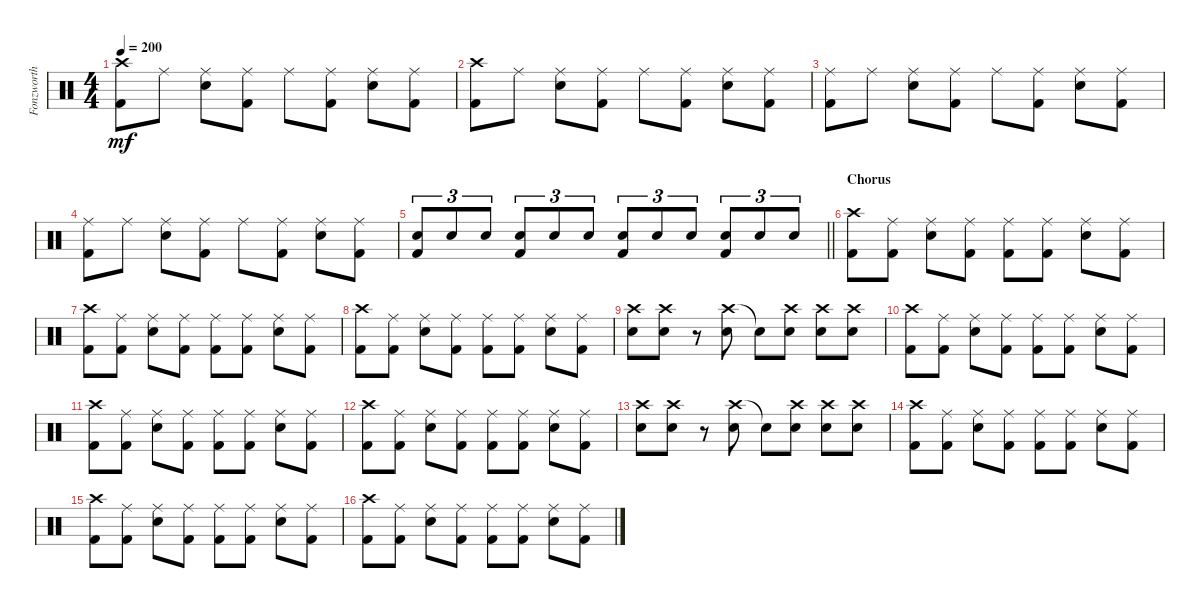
\track ("Fonzworth Fred" "Fonzworth ") {instrument percussion}
\staff {score}
\articulation defaults
\ts (4 4)
\tempo 200
\clef neutral
\ks c
("Crash high (hit)" "Kick (hit) 2").8{dy mf} "Ride (middle)".8 ("Ride (middle)" "Snare (hit) 2").8 ("Ride (middle)" "Kick (hit) 2").8 "Ride (middle)".8 ("Ride (middle)" "Kick (hit) 2").8 ("Ride (middle)" "Snare (hit) 2").8 ("Ride (middle)" "Kick (hit) 2").8 |
("Crash high (hit)" "Kick (hit) 2").8 "Ride (middle)".8 ("Ride (middle)" "Snare (hit) 2").8 ("Ride (middle)" "Kick (hit) 2").8 "Ride (middle)".8 ("Ride (middle)" "Kick (hit) 2").8 ("Ride (middle)" "Snare (hit) 2").8 ("Ride (middle)" "Kick (hit) 2").8 |
("Ride (middle)" "Kick (hit) 2").8 "Ride (middle)".8 ("Ride (middle)" "Snare (hit) 2").8 ("Ride (middle)" "Kick (hit) 2").8 "Ride (middle)".8 ("Ride (middle)" "Kick (hit) 2").8 ("Ride (middle)" "Snare (hit) 2").8 ("Ride (middle)" "Kick (hit) 2").8 |
("Ride (middle)" "Kick (hit) 2").8 "Ride (middle)".8 ("Ride (middle)" "Snare (hit) 2").8 ("Ride (middle)" "Kick (hit) 2").8 "Ride (middle)".8 ("Ride (middle)" "Kick (hit) 2").8 ("Ride (middle)" "Snare (hit) 2").8 ("Ride (middle)" "Kick (hit) 2").8 |
\barLineRight lightlight
("Snare (hit) 2" "Kick (hit) 2").8{tu (3 2)} "Snare (hit) 2".8{tu (3 2)} "Snare (hit) 2".8{tu (3 2)} ("Snare (hit) 2" "Kick (hit) 2").8{tu (3 2)} "Snare (hit) 2".8{tu (3 2)} "Snare (hit) 2".8{tu (3 2)} ("Snare (hit) 2" "Kick (hit) 2").8{tu (3 2)} "Snare (hit) 2".8{tu (3 2)} "Snare (hit) 2".8{tu (3 2)} ("Snare (hit) 2" "Kick (hit) 2").8{tu (3 2)} "Snare (hit) 2".8{tu (3 2)} "Snare (hit) 2".8{tu (3 2)} |
\section ("" "Chorus")
("Crash high (hit)" "Kick (hit) 2").8 ("Ride (middle)" "Kick (hit) 2").8 ("Ride (middle)" "Snare (hit) 2").8 ("Ride (middle)" "Kick (hit) 2").8 ("Ride (middle)" "Kick (hit) 2").8 ("Ride (middle)" "Kick (hit) 2").8 ("Ride (middle)" "Snare (hit) 2").8 ("Ride (middle)" "Kick (hit) 2").8 |
("Crash high (hit)" "Kick (hit) 2").8 ("Ride (middle)" "Kick (hit) 2").8 ("Ride (middle)" "Snare (hit) 2").8 ("Ride (middle)" "Kick (hit) 2").8 ("Ride (middle)" "Kick (hit) 2").8 ("Ride (middle)" "Kick (hit) 2").8 ("Ride (middle)" "Snare (hit) 2").8 ("Ride (middle)" "Kick (hit) 2").8 |
("Crash high (hit)" "Kick (hit) 2").8 ("Ride (middle)" "Kick (hit) 2").8 ("Ride (middle)" "Snare (hit) 2").8 ("Ride (middle)" "Kick (hit) 2").8 ("Ride (middle)" "Kick (hit) 2").8 ("Ride (middle)" "Kick (hit) 2").8 ("Ride (middle)" "Snare (hit) 2").8 ("Ride (middle)" "Kick (hit) 2").8 |
("Crash high (hit)" "Snare (hit) 2").8 ("Crash high (hit)" "Snare (hit) 2").8 r.8 ("Crash high (hit)" "Snare (hit) 2").8 "Snare (hit)"{t}.8 ("Crash high (hit)" "Snare (hit) 2").8 ("Crash high (hit)" "Snare (hit) 2").8 ("Crash high (hit)" "Snare (hit) 2").8 |
("Crash high (hit)" "Kick (hit) 2").8 ("Ride (middle)" "Kick (hit) 2").8 ("Ride (middle)" "Snare (hit) 2").8 ("Ride (middle)" "Kick (hit) 2").8 ("Ride (middle)" "Kick (hit) 2").8 ("Ride (middle)" "Kick (hit) 2").8 ("Ride (middle)" "Snare (hit) 2").8 ("Ride (middle)" "Kick (hit) 2").8 |
("Crash high (hit)" "Kick (hit) 2").8 ("Ride (middle)" "Kick (hit) 2").8 ("Ride (middle)" "Snare (hit) 2").8 ("Ride (middle)" "Kick (hit) 2").8 ("Ride (middle)" "Kick (hit) 2").8 ("Ride (middle)" "Kick (hit) 2").8 ("Ride (middle)" "Snare (hit) 2").8 ("Ride (middle)" "Kick (hit) 2").8 |
("Crash high (hit)" "Kick (hit) 2").8 ("Ride (middle)" "Kick (hit) 2").8 ("Ride (middle)" "Snare (hit) 2").8 ("Ride (middle)" "Kick (hit) 2").8 ("Ride (middle)" "Kick (hit) 2").8 ("Ride (middle)" "Kick (hit) 2").8 ("Ride (middle)" "Snare (hit) 2").8 ("Ride (middle)" "Kick (hit) 2").8 |
("Crash high (hit)" "Snare (hit) 2").8 ("Crash high (hit)" "Snare (hit) 2").8 r.8 ("Crash high (hit)" "Snare (hit) 2").8 "Snare (hit)"{t}.8 ("Crash high (hit)" "Snare (hit) 2").8 ("Crash high (hit)" "Snare (hit) 2").8 ("Crash high (hit)" "Snare (hit) 2").8 |
("Crash high (hit)" "Kick (hit) 2").8 ("Ride (middle)" "Kick (hit) 2").8 ("Ride (middle)" "Snare (hit) 2").8 ("Ride (middle)" "Kick (hit) 2").8 ("Ride (middle)" "Kick (hit) 2").8 ("Ride (middle)" "Kick (hit) 2").8 ("Ride (middle)" "Snare (hit) 2").8 ("Ride (middle)" "Kick (hit) 2").8 |
("Crash high (hit)" "Kick (hit) 2").8 ("Ride (middle)" "Kick (hit) 2").8 ("Ride (middle)" "Snare (hit) 2").8 ("Ride (middle)" "Kick (hit) 2").8 ("Ride (middle)" "Kick (hit) 2").8 ("Ride (middle)" "Kick (hit) 2").8 ("Ride (middle)" "Snare (hit) 2").8 ("Ride (middle)" "Kick (hit) 2").8 |
("Crash high (hit)" "Kick (hit) 2").8 ("Ride (middle)" "Kick (hit) 2").8 ("Ride (middle)" "Snare (hit) 2").8 ("Ride (middle)" "Kick (hit) 2").8 ("Ride (middle)" "Kick (hit) 2").8 ("Ride (middle)" "Kick (hit) 2").8 ("Ride (middle)" "Snare (hit) 2").8 ("Ride (middle)" "Kick (hit) 2").8
